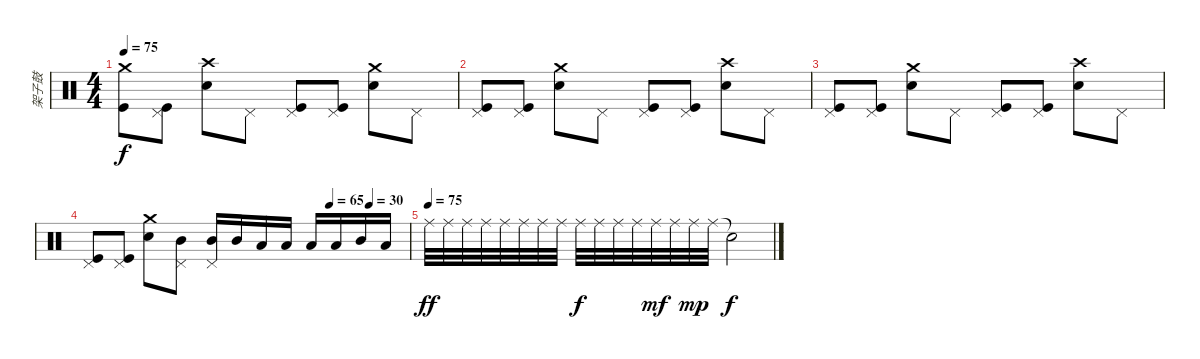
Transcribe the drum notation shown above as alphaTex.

\track ("架子鼓" "架子鼓") {instrument percussion}
\staff {score}
\articulation defaults
\ts (4 4)
\tempo 75
\clef neutral
\ks c
("Kick (hit)" "Crash medium (hit)").8{dy f} ("Kick (hit)" "Pedal Hi-Hat (hit)").8 ("Snare (hit) 2" "Crash high (hit)").8 "Pedal Hi-Hat (hit)".8 ("Kick (hit)" "Pedal Hi-Hat (hit)").8 ("Kick (hit)" "Pedal Hi-Hat (hit)").8 ("Snare (hit) 2" "Crash medium (hit)").8 "Pedal Hi-Hat (hit)".8 |
("Kick (hit)" "Pedal Hi-Hat (hit)").8 ("Kick (hit)" "Pedal Hi-Hat (hit)").8 ("Snare (hit) 2" "Crash medium (hit)").8 "Pedal Hi-Hat (hit)".8 ("Kick (hit)" "Pedal Hi-Hat (hit)").8 ("Kick (hit)" "Pedal Hi-Hat (hit)").8 ("Snare (hit) 2" "Crash high (hit)").8 "Pedal Hi-Hat (hit)".8 |
("Kick (hit)" "Pedal Hi-Hat (hit)").8 ("Kick (hit)" "Pedal Hi-Hat (hit)").8 ("Snare (hit) 2" "Crash medium (hit)").8 "Pedal Hi-Hat (hit)".8 ("Kick (hit)" "Pedal Hi-Hat (hit)").8 ("Kick (hit)" "Pedal Hi-Hat (hit)").8 ("Snare (hit) 2" "Crash high (hit)").8 "Pedal Hi-Hat (hit)".8 |
\tempo (65 0.75)
\tempo (30 0.875)
("Pedal Hi-Hat (hit)" "Kick (hit)").8 ("Pedal Hi-Hat (hit)" "Kick (hit)").8 ("Crash medium (hit)" "Snare (hit) 2").8 ("Pedal Hi-Hat (hit)" "Mid Tom (hit)").8 ("Pedal Hi-Hat (hit)" "Mid Tom (hit)").16 "Mid Tom (hit)".16 "Low Tom (hit)".16 "Low Tom (hit)".16 "Low Floor Tom (hit)".16 "Low Floor Tom (hit)".16 "Mid Tom (hit)".16 "Low Tom (hit)".16 |
\tempo (75)
"Ride (middle)".32{dy ff} "Ride (middle)".32 "Ride (middle)".32 "Ride (middle)".32 "Ride (middle)".32 "Ride (middle)".32 "Ride (middle)".32 "Ride (middle)".32 "Ride (middle)".32{dy f} "Ride (middle)".32 "Ride (middle)".32 "Ride (middle)".32 "Ride (middle)".32{dy mf} "Ride (middle)".32 "Ride (middle)".32{dy mp} "Ride (middle)".32 "Snare (hit)"{t}.2{dy f}
